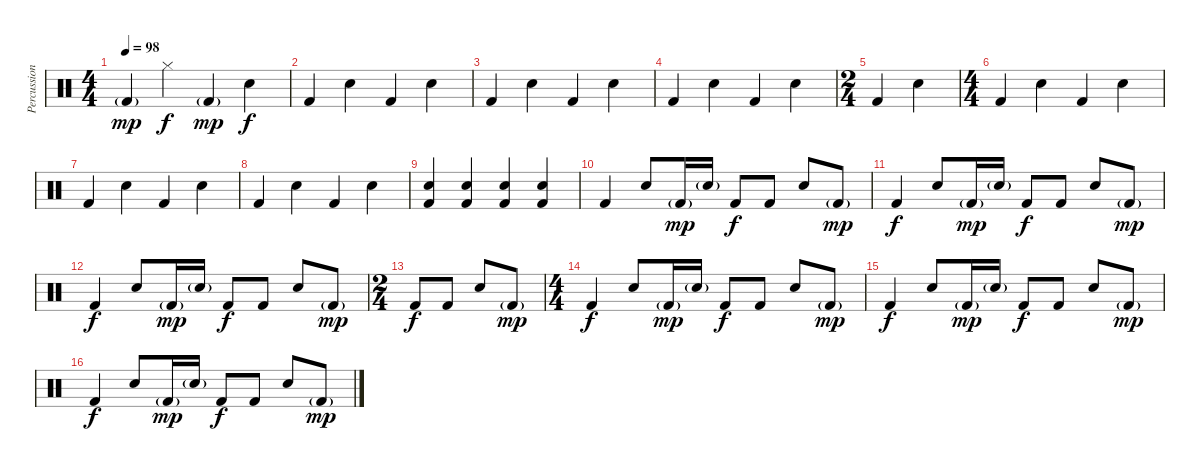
\track ("Percussion" "Percussion") {instrument percussion}
\staff {score}
\articulation defaults
\ts (4 4)
\tempo 98
\clef neutral
\ks c "Kick (hit) 2"{g}.4{dy mp} "Hi-Hat (closed)".4{dy f} "Kick (hit) 2"{g}.4{dy mp} "Snare (hit) 2".4{dy f volume 5}
|
"Kick (hit) 2".4 "Snare (hit) 2".4 "Kick (hit) 2".4 "Snare (hit) 2".4 |
"Kick (hit) 2".4 "Snare (hit) 2".4 "Kick (hit) 2".4 "Snare (hit) 2".4 |
"Kick (hit) 2".4 "Snare (hit) 2".4 "Kick (hit) 2".4 "Snare (hit) 2".4 |
\ts (2 4)
"Kick (hit) 2".4 "Snare (hit) 2".4 |
\ts (4 4)
"Kick (hit) 2".4 "Snare (hit) 2".4 "Kick (hit) 2".4 "Snare (hit) 2".4 |
"Kick (hit) 2".4 "Snare (hit) 2".4 "Kick (hit) 2".4 "Snare (hit) 2".4 |
"Kick (hit) 2".4 "Snare (hit) 2".4 "Kick (hit) 2".4 "Snare (hit) 2".4 |
("Snare (hit) 2" "Kick (hit) 2").4 ("Snare (hit) 2" "Kick (hit) 2").4 ("Snare (hit) 2" "Kick (hit) 2").4 ("Snare (hit) 2" "Kick (hit) 2").4 |
"Kick (hit) 2".4 "Snare (hit) 2".8 "Kick (hit) 2"{g}.16{dy mp} "Snare (hit) 2"{g}.16 "Kick (hit) 2".8{dy f} "Kick (hit) 2".8 "Snare (hit) 2".8 "Kick (hit) 2"{g}.8{dy mp} |
"Kick (hit) 2".4{dy f} "Snare (hit) 2".8 "Kick (hit) 2"{g}.16{dy mp} "Snare (hit) 2"{g}.16 "Kick (hit) 2".8{dy f} "Kick (hit) 2".8 "Snare (hit) 2".8 "Kick (hit) 2"{g}.8{dy mp} |
"Kick (hit) 2".4{dy f} "Snare (hit) 2".8 "Kick (hit) 2"{g}.16{dy mp} "Snare (hit) 2"{g}.16 "Kick (hit) 2".8{dy f} "Kick (hit) 2".8 "Snare (hit) 2".8 "Kick (hit) 2"{g}.8{dy mp} |
\ts (2 4)
"Kick (hit) 2".8{dy f} "Kick (hit) 2".8 "Snare (hit) 2".8 "Kick (hit) 2"{g}.8{dy mp} |
\ts (4 4)
"Kick (hit) 2".4{dy f} "Snare (hit) 2".8 "Kick (hit) 2"{g}.16{dy mp} "Snare (hit) 2"{g}.16 "Kick (hit) 2".8{dy f} "Kick (hit) 2".8 "Snare (hit) 2".8 "Kick (hit) 2"{g}.8{dy mp} |
"Kick (hit) 2".4{dy f} "Snare (hit) 2".8 "Kick (hit) 2"{g}.16{dy mp} "Snare (hit) 2"{g}.16 "Kick (hit) 2".8{dy f} "Kick (hit) 2".8 "Snare (hit) 2".8 "Kick (hit) 2"{g}.8{dy mp} |
"Kick (hit) 2".4{dy f} "Snare (hit) 2".8 "Kick (hit) 2"{g}.16{dy mp} "Snare (hit) 2"{g}.16 "Kick (hit) 2".8{dy f} "Kick (hit) 2".8 "Snare (hit) 2".8 "Kick (hit) 2"{g}.8{dy mp}
